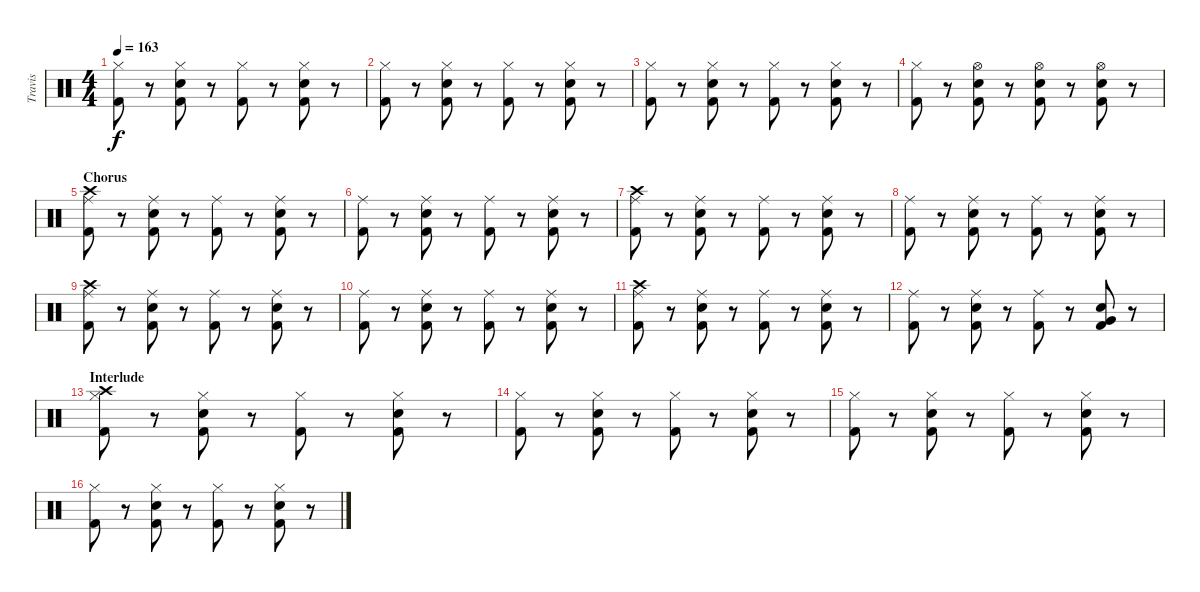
\track ("Travis" "Travis") {instrument percussion}
\staff {score}
\articulation defaults
\ts (4 4)
\tempo 163
\clef neutral
\ks c
("Hi-Hat (closed)" "Kick (hit) 2").8{dy f} r.8 ("Hi-Hat (closed)" "Electric Snare (hit)" "Kick (hit) 2").8 r.8 ("Hi-Hat (closed)" "Kick (hit) 2").8 r.8 ("Hi-Hat (closed)" "Electric Snare (hit)" "Kick (hit) 2").8 r.8 |
("Hi-Hat (closed)" "Kick (hit) 2").8 r.8 ("Hi-Hat (closed)" "Electric Snare (hit)" "Kick (hit) 2").8 r.8 ("Hi-Hat (closed)" "Kick (hit) 2").8 r.8 ("Hi-Hat (closed)" "Electric Snare (hit)" "Kick (hit) 2").8 r.8 |
("Hi-Hat (closed)" "Kick (hit) 2").8 r.8 ("Hi-Hat (closed)" "Electric Snare (hit)" "Kick (hit) 2").8 r.8 ("Hi-Hat (closed)" "Kick (hit) 2").8 r.8 ("Hi-Hat (closed)" "Electric Snare (hit)" "Kick (hit) 2").8 r.8 |
("Hi-Hat (closed)" "Kick (hit) 2").8 r.8 ("Hi-Hat (open)" "Electric Snare (hit)" "Kick (hit) 2").8 r.8 ("Hi-Hat (open)" "Electric Snare (hit)" "Kick (hit) 2").8 r.8 ("Hi-Hat (open)" "Electric Snare (hit)" "Kick (hit) 2").8 r.8 |
\section ("" "Chorus")
("Crash high (hit)" "Ride (middle)" "Kick (hit) 2").8 r.8 ("Ride (middle)" "Electric Snare (hit)" "Kick (hit) 2").8 r.8 ("Ride (middle)" "Kick (hit) 2").8 r.8 ("Ride (middle)" "Electric Snare (hit)" "Kick (hit) 2").8 r.8 |
("Ride (middle)" "Kick (hit) 2").8 r.8 ("Ride (middle)" "Electric Snare (hit)" "Kick (hit) 2").8 r.8 ("Ride (middle)" "Kick (hit) 2").8 r.8 ("Ride (middle)" "Electric Snare (hit)" "Kick (hit) 2").8 r.8 |
("Crash high (hit)" "Ride (middle)" "Kick (hit) 2").8 r.8 ("Ride (middle)" "Electric Snare (hit)" "Kick (hit) 2").8 r.8 ("Ride (middle)" "Kick (hit) 2").8 r.8 ("Ride (middle)" "Electric Snare (hit)" "Kick (hit) 2").8 r.8 |
("Ride (middle)" "Kick (hit) 2").8 r.8 ("Ride (middle)" "Electric Snare (hit)" "Kick (hit) 2").8 r.8 ("Ride (middle)" "Kick (hit) 2").8 r.8 ("Ride (middle)" "Electric Snare (hit)" "Kick (hit) 2").8 r.8 |
("Crash high (hit)" "Ride (middle)" "Kick (hit) 2").8 r.8 ("Ride (middle)" "Electric Snare (hit)" "Kick (hit) 2").8 r.8 ("Ride (middle)" "Kick (hit) 2").8 r.8 ("Ride (middle)" "Electric Snare (hit)" "Kick (hit) 2").8 r.8 |
("Ride (middle)" "Kick (hit) 2").8 r.8 ("Ride (middle)" "Electric Snare (hit)" "Kick (hit) 2").8 r.8 ("Ride (middle)" "Kick (hit) 2").8 r.8 ("Ride (middle)" "Electric Snare (hit)" "Kick (hit) 2").8 r.8 |
("Crash high (hit)" "Ride (middle)" "Kick (hit) 2").8 r.8 ("Ride (middle)" "Electric Snare (hit)" "Kick (hit) 2").8 r.8 ("Ride (middle)" "Kick (hit) 2").8 r.8 ("Ride (middle)" "Electric Snare (hit)" "Kick (hit) 2").8 r.8 |
("Ride (middle)" "Kick (hit) 2").8 r.8 ("Ride (middle)" "Electric Snare (hit)" "Kick (hit) 2").8 r.8 ("Ride (middle)" "Kick (hit) 2").8 r.8 ("Very Low Tom (hit)" "Electric Snare (hit)" "Kick (hit) 2").8 r.8 |
\section ("" "Interlude")
("Crash high (hit)" "Hi-Hat (closed)" "Kick (hit) 2").8 r.8 ("Hi-Hat (closed)" "Electric Snare (hit)" "Kick (hit) 2").8 r.8 ("Hi-Hat (closed)" "Kick (hit) 2").8 r.8 ("Hi-Hat (closed)" "Electric Snare (hit)" "Kick (hit) 2").8 r.8 |
("Hi-Hat (closed)" "Kick (hit) 2").8 r.8 ("Hi-Hat (closed)" "Electric Snare (hit)" "Kick (hit) 2").8 r.8 ("Hi-Hat (closed)" "Kick (hit) 2").8 r.8 ("Hi-Hat (closed)" "Electric Snare (hit)" "Kick (hit) 2").8 r.8 |
("Hi-Hat (closed)" "Kick (hit) 2").8 r.8 ("Hi-Hat (closed)" "Electric Snare (hit)" "Kick (hit) 2").8 r.8 ("Hi-Hat (closed)" "Kick (hit) 2").8 r.8 ("Hi-Hat (closed)" "Electric Snare (hit)" "Kick (hit) 2").8 r.8 |
("Hi-Hat (closed)" "Kick (hit) 2").8 r.8 ("Hi-Hat (closed)" "Electric Snare (hit)" "Kick (hit) 2").8 r.8 ("Hi-Hat (closed)" "Kick (hit) 2").8 r.8 ("Hi-Hat (closed)" "Electric Snare (hit)" "Kick (hit) 2").8 r.8
